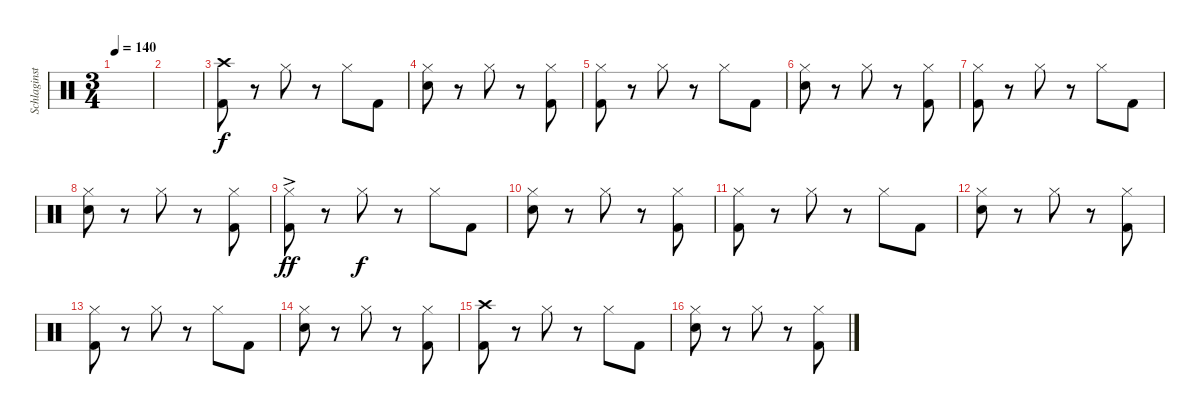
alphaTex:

\track ("Schlaginstrumente - Auswahl" "Schlaginst") {instrument percussion}
\staff {score}
\articulation defaults
\ts (3 4)
\tempo 140
\clef neutral
\ks c
|
|
("Crash high (hit)" "Kick (hit) 2").8 r.8 "Hi-Hat (closed)".8 r.8 "Hi-Hat (closed)".8 "Kick (hit) 2".8 |
("Hi-Hat (closed)" "Electric Snare (hit)").8 r.8 "Hi-Hat (closed)".8 r.8 ("Hi-Hat (closed)" "Kick (hit) 2").8 |
("Hi-Hat (closed)" "Kick (hit) 2").8 r.8 "Hi-Hat (closed)".8 r.8 "Hi-Hat (closed)".8 "Kick (hit) 2".8 |
("Hi-Hat (closed)" "Electric Snare (hit)").8 r.8 "Hi-Hat (closed)".8 r.8 ("Hi-Hat (closed)" "Kick (hit) 2").8 |
("Hi-Hat (closed)" "Kick (hit) 2").8 r.8 "Hi-Hat (closed)".8 r.8 "Hi-Hat (closed)".8 "Kick (hit) 2".8 |
("Hi-Hat (closed)" "Electric Snare (hit)").8 r.8 "Hi-Hat (closed)".8 r.8 ("Hi-Hat (closed)" "Kick (hit) 2").8 |
("Hi-Hat (closed)"{ac} "Kick (hit) 2").8{dy ff} r.8 "Hi-Hat (closed)".8{dy f} r.8 "Hi-Hat (closed)".8 "Kick (hit) 2".8 |
("Hi-Hat (closed)" "Electric Snare (hit)").8 r.8 "Hi-Hat (closed)".8 r.8 ("Hi-Hat (closed)" "Kick (hit) 2").8 |
("Hi-Hat (closed)" "Kick (hit) 2").8 r.8 "Hi-Hat (closed)".8 r.8 "Hi-Hat (closed)".8 "Kick (hit) 2".8 |
("Hi-Hat (closed)" "Electric Snare (hit)").8 r.8 "Hi-Hat (closed)".8 r.8 ("Hi-Hat (closed)" "Kick (hit) 2").8 |
("Hi-Hat (closed)" "Kick (hit) 2").8 r.8 "Hi-Hat (closed)".8 r.8 "Hi-Hat (closed)".8 "Kick (hit) 2".8 |
("Hi-Hat (closed)" "Electric Snare (hit)").8 r.8 "Hi-Hat (closed)".8 r.8 ("Hi-Hat (closed)" "Kick (hit) 2").8 |
("Crash high (hit)" "Kick (hit) 2").8 r.8 "Hi-Hat (closed)".8 r.8 "Hi-Hat (closed)".8 "Kick (hit) 2".8 |
("Hi-Hat (closed)" "Electric Snare (hit)").8 r.8 "Hi-Hat (closed)".8 r.8 ("Hi-Hat (closed)" "Kick (hit) 2").8
